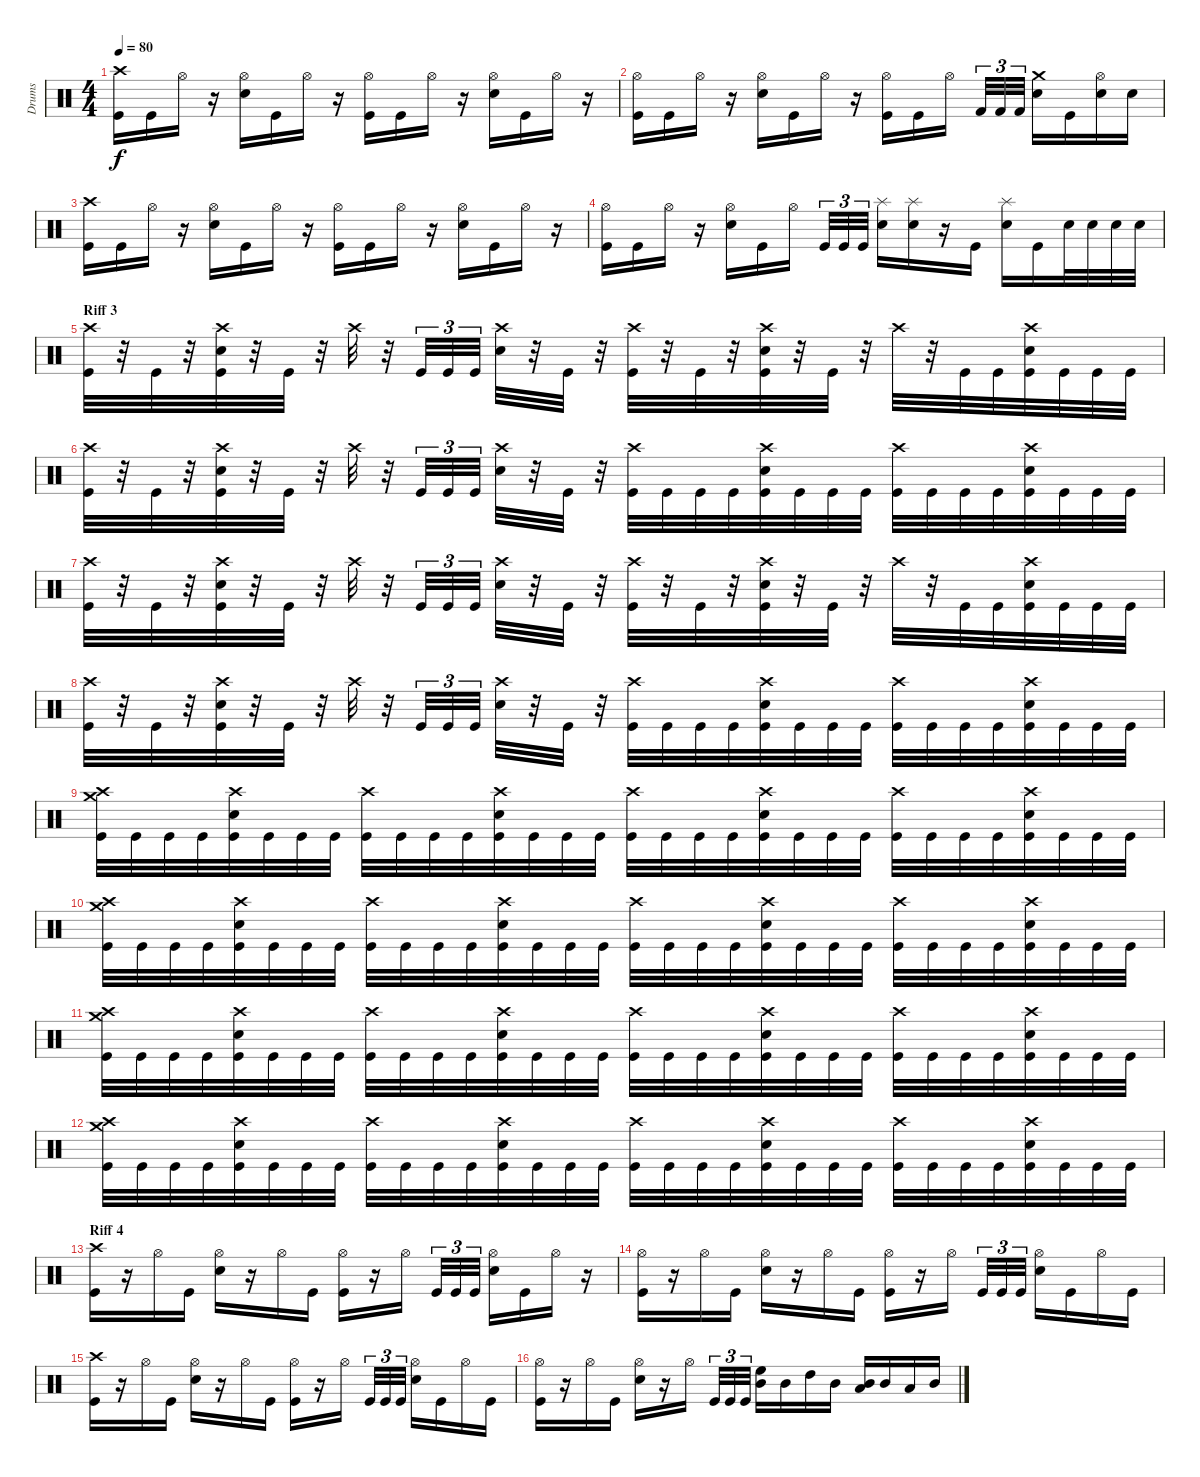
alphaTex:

\track ("Drums" "Drums") {instrument percussion}
\staff {score}
\articulation defaults
\ts (4 4)
\tempo 80
\clef neutral
\ks c
("Crash high (hit)" "Kick (hit)").16{dy f} "Kick (hit)".16 "Hi-Hat (open)".16 r.16 ("Hi-Hat (open)" "Electric Snare (hit)").16 "Kick (hit)".16 "Hi-Hat (open)".16 r.16 ("Hi-Hat (open)" "Kick (hit)").16 "Kick (hit)".16 "Hi-Hat (open)".16 r.16 ("Hi-Hat (open)" "Electric Snare (hit)").16 "Kick (hit)".16 "Hi-Hat (open)".16 r.16 |
("Hi-Hat (open)" "Kick (hit)").16 "Kick (hit)".16 "Hi-Hat (open)".16 r.16 ("Hi-Hat (open)" "Electric Snare (hit)").16 "Kick (hit)".16 "Hi-Hat (open)".16 r.16 ("Hi-Hat (open)" "Kick (hit)").16 "Kick (hit)".16 "Hi-Hat (open)".16 "Kick (hit) 2".32{tu (3 2)} "Kick (hit) 2".32{tu (3 2)} "Kick (hit) 2".32{tu (3 2)} ("Crash medium (hit)" "Electric Snare (hit)").16 "Kick (hit)".16 ("Hi-Hat (open)" "Electric Snare (hit)").16 "Electric Snare (hit)".16 |
("Crash high (hit)" "Kick (hit)").16 "Kick (hit)".16 "Hi-Hat (open)".16 r.16 ("Hi-Hat (open)" "Electric Snare (hit)").16 "Kick (hit)".16 "Hi-Hat (open)".16 r.16 ("Hi-Hat (open)" "Kick (hit)").16 "Kick (hit)".16 "Hi-Hat (open)".16 r.16 ("Hi-Hat (open)" "Electric Snare (hit)").16 "Kick (hit)".16 "Hi-Hat (open)".16 r.16 |
("Hi-Hat (open)" "Kick (hit)").16 "Kick (hit)".16 "Hi-Hat (open)".16 r.16 ("Hi-Hat (open)" "Electric Snare (hit)").16 "Kick (hit)".16 "Hi-Hat (open)".16 "Kick (hit)".32{tu (3 2)} "Kick (hit)".32{tu (3 2)} "Kick (hit)".32{tu (3 2)} ("Splash (hit)" "Electric Snare (hit)").16 ("Splash (hit)" "Electric Snare (hit)").16 r.16 "Kick (hit)".16 ("Splash (hit)" "Electric Snare (hit)").16 "Kick (hit)".16 "Electric Snare (hit)".32 "Electric Snare (hit)".32 "Electric Snare (hit)".32 "Electric Snare (hit)".32 |
\section ("" "Riff 3")
("Crash high (hit)" "Kick (hit)").32 r.32 "Kick (hit)".32 r.32 ("Crash high (hit)" "Electric Snare (hit)" "Kick (hit)").32 r.32 "Kick (hit)".32 r.32 "Crash high (hit)".32 r.32 "Kick (hit)".32{tu (3 2)} "Kick (hit)".32{tu (3 2)} "Kick (hit)".32{tu (3 2)} ("Crash high (hit)" "Electric Snare (hit)").32 r.32 "Kick (hit)".32 r.32 ("Crash high (hit)" "Kick (hit)").32 r.32 "Kick (hit)".32 r.32 ("Crash high (hit)" "Electric Snare (hit)" "Kick (hit)").32 r.32 "Kick (hit)".32 r.32 "Crash high (hit)".32 r.32 "Kick (hit)".32 "Kick (hit)".32 ("Crash high (hit)" "Electric Snare (hit)" "Kick (hit)").32 "Kick (hit)".32 "Kick (hit)".32 "Kick (hit)".32 |
("Crash high (hit)" "Kick (hit)").32 r.32 "Kick (hit)".32 r.32 ("Crash high (hit)" "Electric Snare (hit)" "Kick (hit)").32 r.32 "Kick (hit)".32 r.32 "Crash high (hit)".32 r.32 "Kick (hit)".32{tu (3 2)} "Kick (hit)".32{tu (3 2)} "Kick (hit)".32{tu (3 2)} ("Crash high (hit)" "Electric Snare (hit)").32 r.32 "Kick (hit)".32 r.32 ("Crash high (hit)" "Kick (hit)").32 "Kick (hit)".32 "Kick (hit)".32 "Kick (hit)".32 ("Crash high (hit)" "Electric Snare (hit)" "Kick (hit)").32 "Kick (hit)".32 "Kick (hit)".32 "Kick (hit)".32 ("Crash high (hit)" "Kick (hit)").32 "Kick (hit)".32 "Kick (hit)".32 "Kick (hit)".32 ("Crash high (hit)" "Electric Snare (hit)" "Kick (hit)").32 "Kick (hit)".32 "Kick (hit)".32 "Kick (hit)".32 |
("Crash high (hit)" "Kick (hit)").32 r.32 "Kick (hit)".32 r.32 ("Crash high (hit)" "Electric Snare (hit)" "Kick (hit)").32 r.32 "Kick (hit)".32 r.32 "Crash high (hit)".32 r.32 "Kick (hit)".32{tu (3 2)} "Kick (hit)".32{tu (3 2)} "Kick (hit)".32{tu (3 2)} ("Crash high (hit)" "Electric Snare (hit)").32 r.32 "Kick (hit)".32 r.32 ("Crash high (hit)" "Kick (hit)").32 r.32 "Kick (hit)".32 r.32 ("Crash high (hit)" "Electric Snare (hit)" "Kick (hit)").32 r.32 "Kick (hit)".32 r.32 "Crash high (hit)".32 r.32 "Kick (hit)".32 "Kick (hit)".32 ("Crash high (hit)" "Electric Snare (hit)" "Kick (hit)").32 "Kick (hit)".32 "Kick (hit)".32 "Kick (hit)".32 |
("Crash high (hit)" "Kick (hit)").32 r.32 "Kick (hit)".32 r.32 ("Crash high (hit)" "Electric Snare (hit)" "Kick (hit)").32 r.32 "Kick (hit)".32 r.32 "Crash high (hit)".32 r.32 "Kick (hit)".32{tu (3 2)} "Kick (hit)".32{tu (3 2)} "Kick (hit)".32{tu (3 2)} ("Crash high (hit)" "Electric Snare (hit)").32 r.32 "Kick (hit)".32 r.32 ("Crash high (hit)" "Kick (hit)").32 "Kick (hit)".32 "Kick (hit)".32 "Kick (hit)".32 ("Crash high (hit)" "Electric Snare (hit)" "Kick (hit)").32 "Kick (hit)".32 "Kick (hit)".32 "Kick (hit)".32 ("Crash high (hit)" "Kick (hit)").32 "Kick (hit)".32 "Kick (hit)".32 "Kick (hit)".32 ("Crash high (hit)" "Electric Snare (hit)" "Kick (hit)").32 "Kick (hit)".32 "Kick (hit)".32 "Kick (hit)".32 |
("Crash high (hit)" "Crash medium (hit)" "Kick (hit)").32 "Kick (hit)".32 "Kick (hit)".32 "Kick (hit)".32 ("Crash high (hit)" "Electric Snare (hit)" "Kick (hit)").32 "Kick (hit)".32 "Kick (hit)".32 "Kick (hit)".32 ("Crash high (hit)" "Kick (hit)").32 "Kick (hit)".32 "Kick (hit)".32 "Kick (hit)".32 ("Crash high (hit)" "Electric Snare (hit)" "Kick (hit)").32 "Kick (hit)".32 "Kick (hit)".32 "Kick (hit)".32 ("Crash high (hit)" "Kick (hit)").32 "Kick (hit)".32 "Kick (hit)".32 "Kick (hit)".32 ("Crash high (hit)" "Electric Snare (hit)" "Kick (hit)").32 "Kick (hit)".32 "Kick (hit)".32 "Kick (hit)".32 ("Crash high (hit)" "Kick (hit)").32 "Kick (hit)".32 "Kick (hit)".32 "Kick (hit)".32 ("Crash high (hit)" "Electric Snare (hit)" "Kick (hit)").32 "Kick (hit)".32 "Kick (hit)".32 "Kick (hit)".32 |
("Crash high (hit)" "Crash medium (hit)" "Kick (hit)").32 "Kick (hit)".32 "Kick (hit)".32 "Kick (hit)".32 ("Crash high (hit)" "Electric Snare (hit)" "Kick (hit)").32 "Kick (hit)".32 "Kick (hit)".32 "Kick (hit)".32 ("Crash high (hit)" "Kick (hit)").32 "Kick (hit)".32 "Kick (hit)".32 "Kick (hit)".32 ("Crash high (hit)" "Electric Snare (hit)" "Kick (hit)").32 "Kick (hit)".32 "Kick (hit)".32 "Kick (hit)".32 ("Crash high (hit)" "Kick (hit)").32 "Kick (hit)".32 "Kick (hit)".32 "Kick (hit)".32 ("Crash high (hit)" "Electric Snare (hit)" "Kick (hit)").32 "Kick (hit)".32 "Kick (hit)".32 "Kick (hit)".32 ("Crash high (hit)" "Kick (hit)").32 "Kick (hit)".32 "Kick (hit)".32 "Kick (hit)".32 ("Crash high (hit)" "Electric Snare (hit)" "Kick (hit)").32 "Kick (hit)".32 "Kick (hit)".32 "Kick (hit)".32 |
("Crash high (hit)" "Crash medium (hit)" "Kick (hit)").32 "Kick (hit)".32 "Kick (hit)".32 "Kick (hit)".32 ("Crash high (hit)" "Electric Snare (hit)" "Kick (hit)").32 "Kick (hit)".32 "Kick (hit)".32 "Kick (hit)".32 ("Crash high (hit)" "Kick (hit)").32 "Kick (hit)".32 "Kick (hit)".32 "Kick (hit)".32 ("Crash high (hit)" "Electric Snare (hit)" "Kick (hit)").32 "Kick (hit)".32 "Kick (hit)".32 "Kick (hit)".32 ("Crash high (hit)" "Kick (hit)").32 "Kick (hit)".32 "Kick (hit)".32 "Kick (hit)".32 ("Crash high (hit)" "Electric Snare (hit)" "Kick (hit)").32 "Kick (hit)".32 "Kick (hit)".32 "Kick (hit)".32 ("Crash high (hit)" "Kick (hit)").32 "Kick (hit)".32 "Kick (hit)".32 "Kick (hit)".32 ("Crash high (hit)" "Electric Snare (hit)" "Kick (hit)").32 "Kick (hit)".32 "Kick (hit)".32 "Kick (hit)".32 |
("Crash high (hit)" "Crash medium (hit)" "Kick (hit)").32 "Kick (hit)".32 "Kick (hit)".32 "Kick (hit)".32 ("Crash high (hit)" "Electric Snare (hit)" "Kick (hit)").32 "Kick (hit)".32 "Kick (hit)".32 "Kick (hit)".32 ("Crash high (hit)" "Kick (hit)").32 "Kick (hit)".32 "Kick (hit)".32 "Kick (hit)".32 ("Crash high (hit)" "Electric Snare (hit)" "Kick (hit)").32 "Kick (hit)".32 "Kick (hit)".32 "Kick (hit)".32 ("Crash high (hit)" "Kick (hit)").32 "Kick (hit)".32 "Kick (hit)".32 "Kick (hit)".32 ("Crash high (hit)" "Electric Snare (hit)" "Kick (hit)").32 "Kick (hit)".32 "Kick (hit)".32 "Kick (hit)".32 ("Crash high (hit)" "Kick (hit)").32 "Kick (hit)".32 "Kick (hit)".32 "Kick (hit)".32 ("Crash high (hit)" "Electric Snare (hit)" "Kick (hit)").32 "Kick (hit)".32 "Kick (hit)".32 "Kick (hit)".32 |
\section ("" "Riff 4")
("Crash high (hit)" "Kick (hit)").16 r.16 "Hi-Hat (open)".16 "Kick (hit)".16 ("Hi-Hat (open)" "Electric Snare (hit)").16 r.16 "Hi-Hat (open)".16 "Kick (hit)".16 ("Hi-Hat (open)" "Kick (hit)").16 r.16 "Hi-Hat (open)".16 "Kick (hit)".32{tu (3 2)} "Kick (hit)".32{tu (3 2)} "Kick (hit)".32{tu (3 2)} ("Hi-Hat (open)" "Electric Snare (hit)").16 "Kick (hit)".16 "Hi-Hat (open)".16 r.16 |
("Hi-Hat (open)" "Kick (hit)").16 r.16 "Hi-Hat (open)".16 "Kick (hit)".16 ("Hi-Hat (open)" "Electric Snare (hit)").16 r.16 "Hi-Hat (open)".16 "Kick (hit)".16 ("Hi-Hat (open)" "Kick (hit)").16 r.16 "Hi-Hat (open)".16 "Kick (hit)".32{tu (3 2)} "Kick (hit)".32{tu (3 2)} "Kick (hit)".32{tu (3 2)} ("Hi-Hat (open)" "Electric Snare (hit)").16 "Kick (hit)".16 "Hi-Hat (open)".16 "Kick (hit)".16 |
("Crash high (hit)" "Kick (hit)").16 r.16 "Hi-Hat (open)".16 "Kick (hit)".16 ("Hi-Hat (open)" "Electric Snare (hit)").16 r.16 "Hi-Hat (open)".16 "Kick (hit)".16 ("Hi-Hat (open)" "Kick (hit)").16 r.16 "Hi-Hat (open)".16 "Kick (hit)".32{tu (3 2)} "Kick (hit)".32{tu (3 2)} "Kick (hit)".32{tu (3 2)} ("Hi-Hat (open)" "Electric Snare (hit)").16 "Kick (hit)".16 "Hi-Hat (open)".16 "Kick (hit)".16 |
("Hi-Hat (open)" "Kick (hit)").16 r.16 "Hi-Hat (open)".16 "Kick (hit)".16 ("Hi-Hat (open)" "Electric Snare (hit)").16 r.16 "Hi-Hat (open)".16 "Kick (hit)".32{tu (3 2)} "Kick (hit)".32{tu (3 2)} "Kick (hit)".32{tu (3 2)} ("High Floor Tom (hit)" "Mid Tom (hit)").16 "Mid Tom (hit)".16 "High Tom (hit)".16 "Mid Tom (hit)".16 ("Mid Tom (hit)" "Low Tom (hit)").16 "Mid Tom (hit)".16 "Low Tom (hit)".16 "Mid Tom (hit)".16
